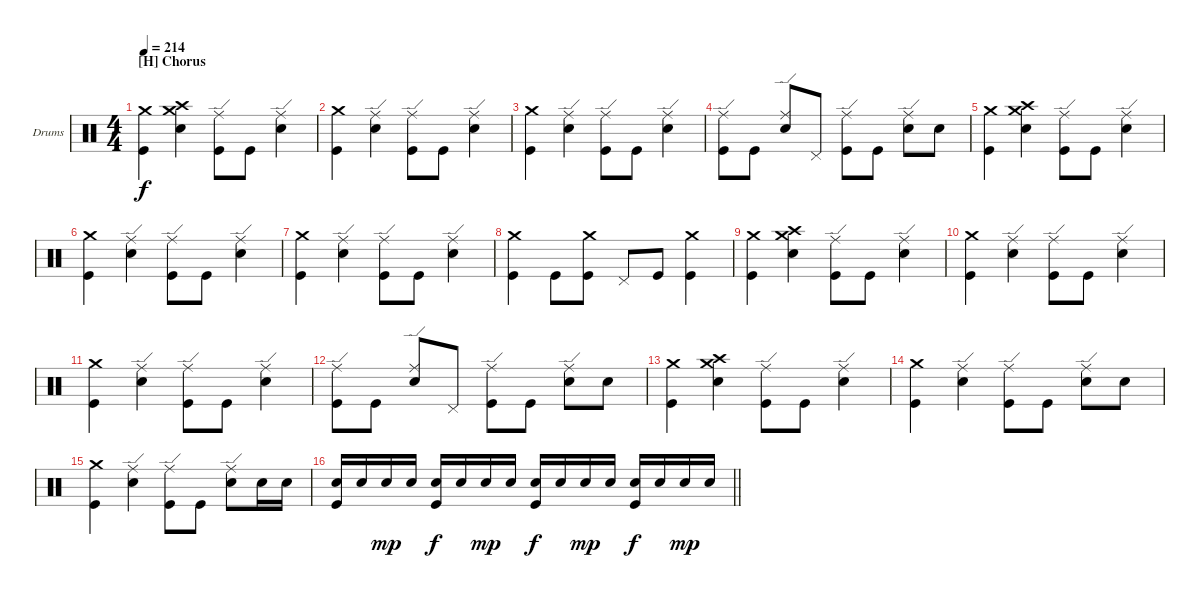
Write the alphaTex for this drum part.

\bracketExtendMode groupsimilarinstruments
\firstSystemTrackNameOrientation horizontal
\otherSystemsTrackNameOrientation horizontal
\track ("Drumkit" "Drums") {instrument percussion}
\staff {score}
\articulation defaults
\ts (4 4)
\section ("H" "Chorus")
\tempo 214
\clef neutral
\ks c
("Crash medium (hit)" "Kick (hit)").4{dy f} ("Snare (hit) 2" "Crash medium (hit)" "Crash high (hit)").4 ("Ride (edge)" "Kick (hit)").8 "Kick (hit)".8 ("Ride (edge)" "Snare (hit) 2").4 |
("Crash medium (hit)" "Kick (hit)").4 ("Ride (edge)" "Snare (hit) 2").4 ("Ride (edge)" "Kick (hit)").8 "Kick (hit)".8 ("Ride (edge)" "Snare (hit) 2").4 |
("Crash medium (hit)" "Kick (hit)").4 ("Ride (edge)" "Snare (hit) 2").4 ("Ride (edge)" "Kick (hit)").8 "Kick (hit)".8 ("Ride (edge)" "Snare (hit) 2").4 |
("Ride (edge)" "Kick (hit)").8 "Kick (hit)".8 ("Snare (hit) 2" "Ride (edge)").8 "Pedal Hi-Hat (hit)".8 ("Kick (hit)" "Ride (edge)").8 "Kick (hit)".8 ("Snare (hit) 2" "Ride (edge)").8 "Snare (hit) 2".8 |
("Crash medium (hit)" "Kick (hit)").4 ("Snare (hit) 2" "Crash medium (hit)" "Crash high (hit)").4 ("Ride (edge)" "Kick (hit)").8 "Kick (hit)".8 ("Ride (edge)" "Snare (hit) 2").4 |
("Crash medium (hit)" "Kick (hit)").4 ("Ride (edge)" "Snare (hit) 2").4 ("Ride (edge)" "Kick (hit)").8 "Kick (hit)".8 ("Ride (edge)" "Snare (hit) 2").4 |
("Crash medium (hit)" "Kick (hit)").4 ("Ride (edge)" "Snare (hit) 2").4 ("Ride (edge)" "Kick (hit)").8 "Kick (hit)".8 ("Ride (edge)" "Snare (hit) 2").4 |
("Crash medium (hit)" "Kick (hit)").4 "Kick (hit)".8 ("Crash medium (hit)" "Kick (hit)").8 "Pedal Hi-Hat (hit)".8 "Kick (hit)".8 ("Crash medium (hit)" "Kick (hit)").4 |
("Crash medium (hit)" "Kick (hit)").4 ("Snare (hit) 2" "Crash medium (hit)" "Crash high (hit)").4 ("Ride (edge)" "Kick (hit)").8 "Kick (hit)".8 ("Ride (edge)" "Snare (hit) 2").4 |
("Crash medium (hit)" "Kick (hit)").4 ("Ride (edge)" "Snare (hit) 2").4 ("Ride (edge)" "Kick (hit)").8 "Kick (hit)".8 ("Ride (edge)" "Snare (hit) 2").4 |
("Crash medium (hit)" "Kick (hit)").4 ("Ride (edge)" "Snare (hit) 2").4 ("Ride (edge)" "Kick (hit)").8 "Kick (hit)".8 ("Ride (edge)" "Snare (hit) 2").4 |
("Ride (edge)" "Kick (hit)").8 "Kick (hit)".8 ("Snare (hit) 2" "Ride (edge)").8 "Pedal Hi-Hat (hit)".8 ("Kick (hit)" "Ride (edge)").8 "Kick (hit)".8 ("Snare (hit) 2" "Ride (edge)").8 "Snare (hit) 2".8 |
("Crash medium (hit)" "Kick (hit)").4 ("Snare (hit) 2" "Crash medium (hit)" "Crash high (hit)").4 ("Ride (edge)" "Kick (hit)").8 "Kick (hit)".8 ("Ride (edge)" "Snare (hit) 2").4 |
("Crash medium (hit)" "Kick (hit)").4 ("Ride (edge)" "Snare (hit) 2").4 ("Ride (edge)" "Kick (hit)").8 "Kick (hit)".8 ("Ride (edge)" "Snare (hit) 2").8 "Snare (hit) 2".8 |
("Crash medium (hit)" "Kick (hit)").4 ("Ride (edge)" "Snare (hit) 2").4 ("Ride (edge)" "Kick (hit)").8 "Kick (hit)".8 ("Ride (edge)" "Snare (hit) 2").8 "Snare (hit) 2".16 "Snare (hit) 2".16 |
\barLineRight lightlight
("Kick (hit)" "Snare (hit) 2").16 "Snare (hit) 2".16 "Snare (hit) 2".16{dy mp} "Snare (hit) 2".16 ("Kick (hit)" "Snare (hit) 2").16{dy f} "Snare (hit) 2".16 "Snare (hit) 2".16{dy mp} "Snare (hit) 2".16 ("Kick (hit)" "Snare (hit) 2").16{dy f} "Snare (hit) 2".16 "Snare (hit) 2".16{dy mp} "Snare (hit) 2".16 ("Kick (hit)" "Snare (hit) 2").16{dy f} "Snare (hit) 2".16 "Snare (hit) 2".16{dy mp} "Snare (hit) 2".16
